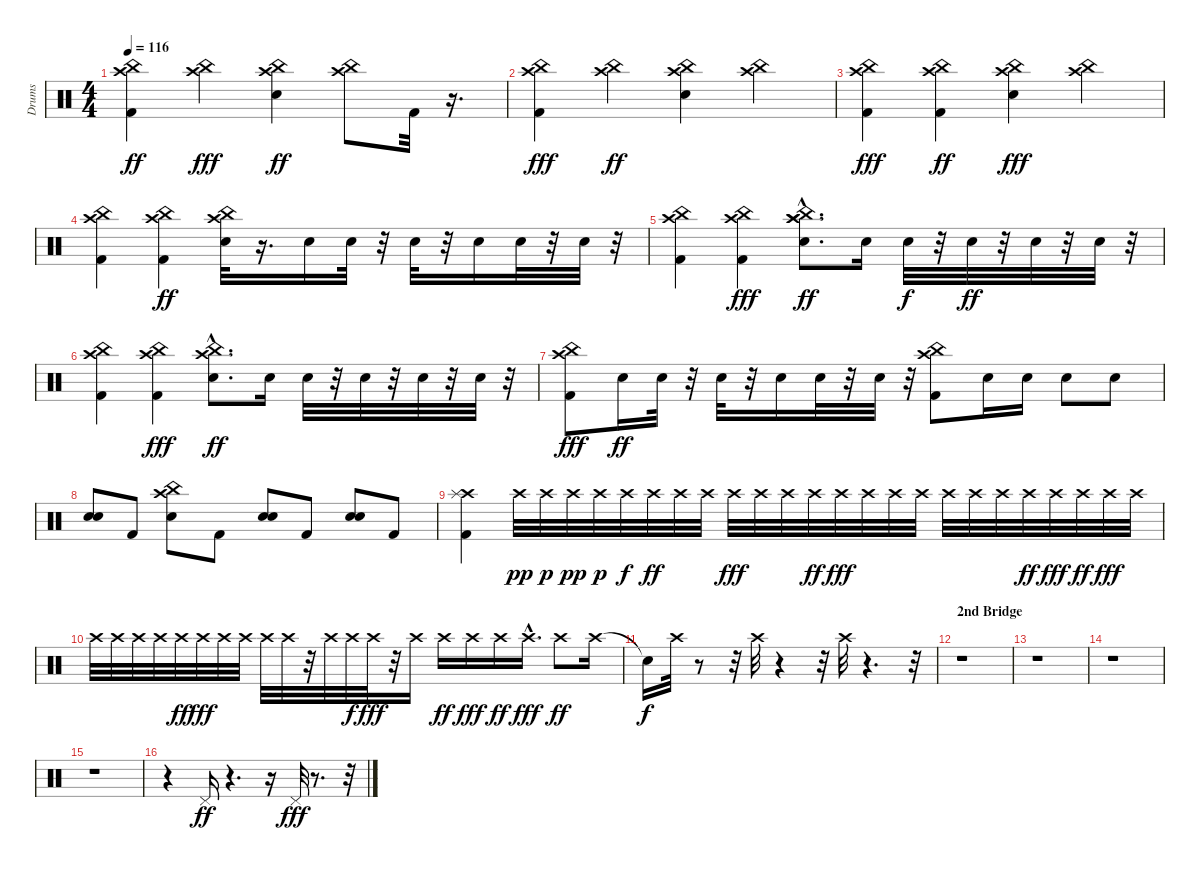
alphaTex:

\track ("Drums" "Drums") {instrument percussion}
\staff {score}
\articulation defaults
\ts (4 4)
\tempo 116
\clef neutral
\ks c
("Kick (hit) 2" "China (hit)" "Crash high (hit)").4{dy ff} ("China (hit)" "Crash high (hit)").4{dy fff} ("Snare (hit) 2" "China (hit)" "Crash high (hit)").4{dy ff} ("China (hit)" "Crash high (hit)").8 "Kick (hit) 2".32 r.16{d} |
("Kick (hit) 2" "China (hit)" "Crash high (hit)").4{dy fff} ("China (hit)" "Crash high (hit)").4{dy ff} ("China (hit)" "Snare (hit) 2" "Crash high (hit)").4 ("China (hit)" "Crash high (hit)").4 |
("Kick (hit) 2" "China (hit)" "Crash high (hit)").4{dy fff} ("Kick (hit) 2" "China (hit)" "Crash high (hit)").4{dy ff} ("China (hit)" "Snare (hit) 2" "Crash high (hit)").4{dy fff} ("China (hit)" "Crash high (hit)").4 |
("Kick (hit) 2" "China (hit)" "Crash high (hit)").4 ("Kick (hit) 2" "China (hit)" "Crash high (hit)").4{dy ff} ("China (hit)" "Crash high (hit)" "Snare (hit) 2").32 r.16{d} "Snare (hit) 2".16 "Snare (hit) 2".32 r.32 "Snare (hit) 2".32 r.32 "Snare (hit) 2".16 "Snare (hit) 2".32 r.32 "Snare (hit) 2".32 r.32 |
("Kick (hit) 2" "China (hit)" "Crash high (hit)").4 ("Kick (hit) 2" "China (hit)" "Crash high (hit)").4{dy fff} ("Crash high (hit)" "China (hit)" "Crash high (hit)" "Snare (hit) 2"{hac}).8{d dy ff} "Snare (hit) 2".16 "Snare (hit) 2".32{dy f} r.32 "Snare (hit) 2".32{dy ff} r.32 "Snare (hit) 2".32 r.32 "Snare (hit) 2".32 r.32 |
("Kick (hit) 2" "China (hit)" "Crash high (hit)").4 ("Kick (hit) 2" "China (hit)" "Crash high (hit)").4{dy fff} ("China (hit)" "Crash high (hit)" "Snare (hit) 2"{hac}).8{d dy ff} "Snare (hit) 2".16 "Snare (hit) 2".32 r.32 "Snare (hit) 2".32 r.32 "Snare (hit) 2".32 r.32 "Snare (hit) 2".32 r.32 |
("Kick (hit) 2" "China (hit)" "Crash high (hit)").8{dy fff} "Snare (hit) 2".16{dy ff} "Snare (hit) 2".32 r.32 "Snare (hit) 2".32 r.32 "Snare (hit) 2".16 "Snare (hit) 2".32 r.32 "Snare (hit) 2".32 r.32 ("Kick (hit) 2" "China (hit)" "Crash high (hit)").8 "Snare (hit) 2".16 "Snare (hit) 2".16 "Snare (hit) 2".8 "Snare (hit) 2".8 |
("Snare (hit) 2" "Snare (hit) 2").8 "Kick (hit) 2".8 ("China (hit)" "Crash high (hit)" "Snare (hit) 2").8 "Kick (hit) 2".8 ("Snare (hit) 2" "Snare (hit) 2").8 "Kick (hit) 2".8 ("Snare (hit) 2" "Snare (hit) 2").8 "Kick (hit) 2".8 |
("Crash high (hit)" "Splash (hit)" "Kick (hit) 2").4 "Crash high (hit)".32{dy pp volume 2} "Crash high (hit)".32{dy p volume 2} "Crash high (hit)".32{dy pp volume 3} "Crash high (hit)".32{dy p volume 3} "Crash high (hit)".32{dy f volume 4} "Crash high (hit)".32{dy ff volume 4} "Crash high (hit)".32{volume 4} "Crash high (hit)".32{volume 4} "Crash high (hit)".32{dy fff volume 5} "Crash high (hit)".32{volume 5} "Crash high (hit)".32{volume 6} "Crash high (hit)".32{dy ff volume 6} "Crash high (hit)".32{dy fff volume 6} "Crash high (hit)".32{volume 6} "Crash high (hit)".32{volume 7} "Crash high (hit)".32{volume 7} "Crash high (hit)".32{volume 8} "Crash high (hit)".32{volume 8} "Crash high (hit)".32{volume 8} "Crash high (hit)".32{dy ff volume 8} "Crash high (hit)".32{dy fff volume 9} "Crash high (hit)".32{dy ff volume 9} "Crash high (hit)".32{dy fff volume 10} "Crash high (hit)".32{volume 10} |
"Crash high (hit)".32{volume 10} "Crash high (hit)".32{volume 11} "Crash high (hit)".32{volume 11} "Crash high (hit)".32{volume 11} "Crash high (hit)".32{dy ff volume 12} "Crash high (hit)".32{dy fff volume 12} "Crash high (hit)".32{volume 12} "Crash high (hit)".32{volume 13} "Crash high (hit)".32{volume 13} "Crash high (hit)".32{volume 13} r.32 "Crash high (hit)".32{volume 14} "Crash high (hit)".32{dy f volume 14} "Crash high (hit)".32{dy fff volume 15} r.32 "Crash high (hit)".16{volume 15} "Crash high (hit)".16{dy ff volume 16} "Crash high (hit)".16{dy fff} "Crash high (hit)".16{dy ff} "Crash high (hit)"{hac}.16{d dy fff} "Crash high (hit)".8{dy ff} "Crash high (hit)".16 |
"Snare (hit)"{t}.16{dy f} "Crash high (hit)".32 r.8 r.32 "Crash high (hit)".32 r.4 r.32 "Crash high (hit)".32 r.4{d} r.32 |
\section ("" "2nd Bridge")
r.1 |
r.1 |
r.1 |
r.1 |
r.4 "Pedal Hi-Hat (hit)".16{dy ff} r.4{d} r.16 "Pedal Hi-Hat (hit)".32{dy fff} r.8{d} r.32
